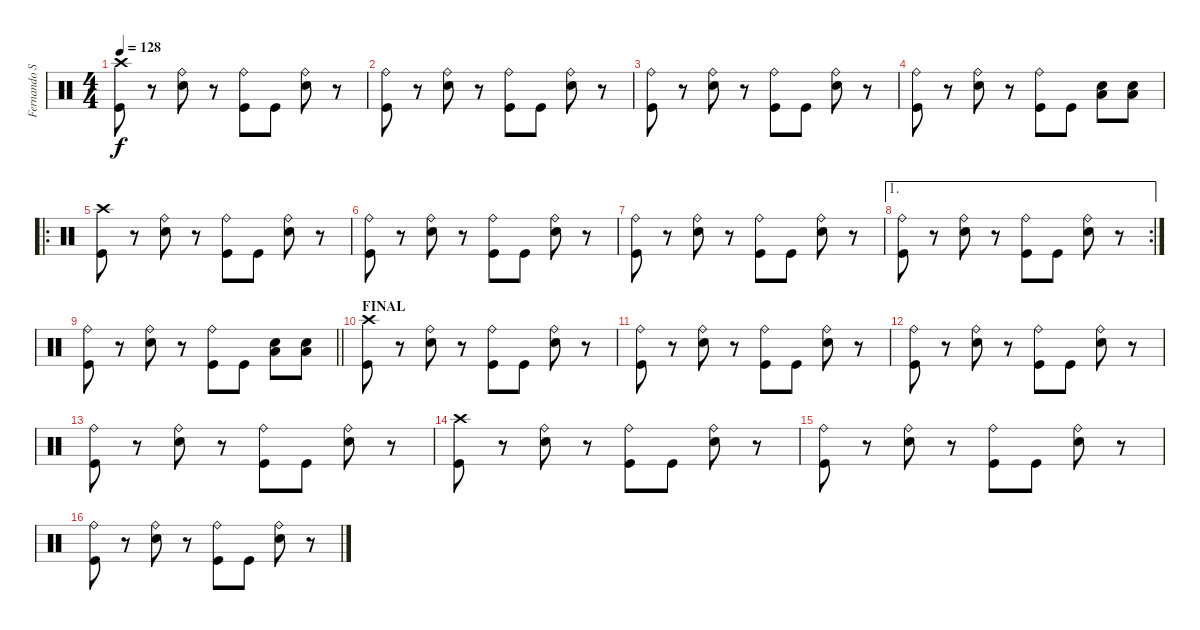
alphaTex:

\track ("Fernando Scarcella" "Fernando S") {instrument percussion}
\staff {score}
\articulation defaults
\ts (4 4)
\tempo 128
\clef neutral
\ks c
("Kick (hit)" "Crash high (hit)").8{dy f} r.8 ("Snare (hit) 2" "Ride (bell)").8 r.8 ("Kick (hit)" "Ride (bell)").8 "Kick (hit)".8 ("Snare (hit) 2" "Ride (bell)").8 r.8 |
("Kick (hit)" "Ride (bell)").8 r.8 ("Snare (hit) 2" "Ride (bell)").8 r.8 ("Kick (hit)" "Ride (bell)").8 "Kick (hit)".8 ("Snare (hit) 2" "Ride (bell)").8 r.8 |
("Kick (hit)" "Ride (bell)").8 r.8 ("Snare (hit) 2" "Ride (bell)").8 r.8 ("Kick (hit)" "Ride (bell)").8 "Kick (hit)".8 ("Snare (hit) 2" "Ride (bell)").8 r.8 |
("Kick (hit)" "Ride (bell)").8 r.8 ("Snare (hit) 2" "Ride (bell)").8 r.8 ("Kick (hit)" "Ride (bell)").8 "Kick (hit)".8 ("Snare (hit) 2" "Low Floor Tom (hit)").8 ("Snare (hit) 2" "Low Floor Tom (hit)").8 |
\ro
("Kick (hit)" "Crash high (hit)").8 r.8 ("Snare (hit) 2" "Ride (bell)").8 r.8 ("Kick (hit)" "Ride (bell)").8 "Kick (hit)".8 ("Snare (hit) 2" "Ride (bell)").8 r.8 |
("Kick (hit)" "Ride (bell)").8 r.8 ("Snare (hit) 2" "Ride (bell)").8 r.8 ("Kick (hit)" "Ride (bell)").8 "Kick (hit)".8 ("Snare (hit) 2" "Ride (bell)").8 r.8 |
("Kick (hit)" "Ride (bell)").8 r.8 ("Snare (hit) 2" "Ride (bell)").8 r.8 ("Kick (hit)" "Ride (bell)").8 "Kick (hit)".8 ("Snare (hit) 2" "Ride (bell)").8 r.8 |
\ae 1
\rc 2
("Kick (hit)" "Ride (bell)").8 r.8 ("Snare (hit) 2" "Ride (bell)").8 r.8 ("Kick (hit)" "Ride (bell)").8 "Kick (hit)".8 ("Snare (hit) 2" "Ride (bell)").8 r.8 |
\barLineRight lightlight
("Kick (hit)" "Ride (bell)").8 r.8 ("Snare (hit) 2" "Ride (bell)").8 r.8 ("Kick (hit)" "Ride (bell)").8 "Kick (hit)".8 ("Low Floor Tom (hit)" "Snare (hit) 2").8 ("Low Floor Tom (hit)" "Snare (hit) 2").8 |
\section ("" "FINAL")
("Kick (hit)" "Crash high (hit)").8 r.8 ("Snare (hit) 2" "Ride (bell)").8 r.8 ("Kick (hit)" "Ride (bell)").8 "Kick (hit)".8 ("Snare (hit) 2" "Ride (bell)").8 r.8 |
("Kick (hit)" "Ride (bell)").8 r.8 ("Snare (hit) 2" "Ride (bell)").8 r.8 ("Kick (hit)" "Ride (bell)").8 "Kick (hit)".8 ("Snare (hit) 2" "Ride (bell)").8 r.8 |
("Kick (hit)" "Ride (bell)").8 r.8 ("Snare (hit) 2" "Ride (bell)").8 r.8 ("Kick (hit)" "Ride (bell)").8 "Kick (hit)".8 ("Snare (hit) 2" "Ride (bell)").8 r.8 |
("Kick (hit)" "Ride (bell)").8 r.8 ("Snare (hit) 2" "Ride (bell)").8 r.8 ("Kick (hit)" "Ride (bell)").8 "Kick (hit)".8 ("Snare (hit) 2" "Ride (bell)").8 r.8 |
("Kick (hit)" "Crash high (hit)").8 r.8 ("Snare (hit) 2" "Ride (bell)").8 r.8 ("Kick (hit)" "Ride (bell)").8 "Kick (hit)".8 ("Snare (hit) 2" "Ride (bell)").8 r.8 |
("Kick (hit)" "Ride (bell)").8 r.8 ("Snare (hit) 2" "Ride (bell)").8 r.8 ("Kick (hit)" "Ride (bell)").8 "Kick (hit)".8 ("Snare (hit) 2" "Ride (bell)").8 r.8 |
("Kick (hit)" "Ride (bell)").8 r.8 ("Snare (hit) 2" "Ride (bell)").8 r.8 ("Kick (hit)" "Ride (bell)").8 "Kick (hit)".8 ("Snare (hit) 2" "Ride (bell)").8 r.8
